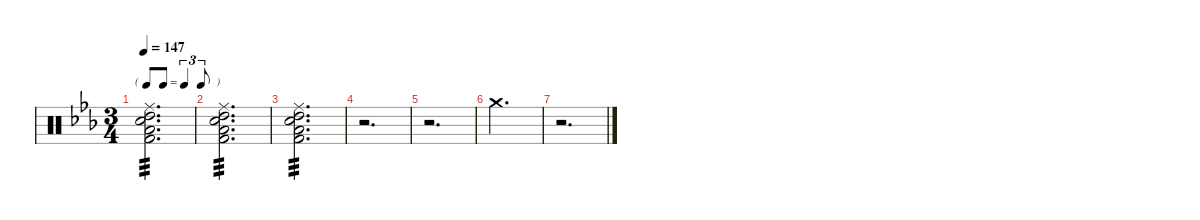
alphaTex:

\defaultSystemsLayout 4
\hideDynamics
\bracketExtendMode nobrackets
\singleTrackTrackNamePolicy hidden
\multiTrackTrackNamePolicy hidden
\firstSystemTrackNameMode fullname
\firstSystemTrackNameOrientation horizontal
\otherSystemsTrackNameOrientation horizontal
\track ("Percussion" "drm.") {defaultSystemsLayout 8 instrument percussion}
\staff {score}
\articulation defaults
\ts (3 4)
\tf triplet8th
\tempo 147
\clef neutral
\ks eb
("Snare (hit) 2"{acc forcenatural} "Ride (middle)"{acc forcenatural} "High Tom (hit)"{acc forcenatural} "Kick (hit) 2"{acc forcenatural} "Low Floor Tom (hit)"{acc forcenatural}).2{d tp 3 dy p beam Down} |
("Snare (hit) 2"{acc forcenatural} "Ride (middle)"{acc forcenatural} "High Tom (hit)"{acc forcenatural} "Kick (hit) 2"{acc forcenatural} "Low Floor Tom (hit)"{acc forcenatural}).2{d tp 3 beam Down} |
("Snare (hit) 2"{acc forcenatural} "Ride (middle)"{acc forcenatural} "High Tom (hit)"{acc forcenatural} "Kick (hit) 2"{acc forcenatural} "Low Floor Tom (hit)"{acc forcenatural}).2{d tp 3 beam Down} |
r.2{d beam Down} |
r.2{d beam Down} |
"Crash medium (hit)"{acc forcenatural}.2{d dy f beam Down} |
r.2{d beam Down}
